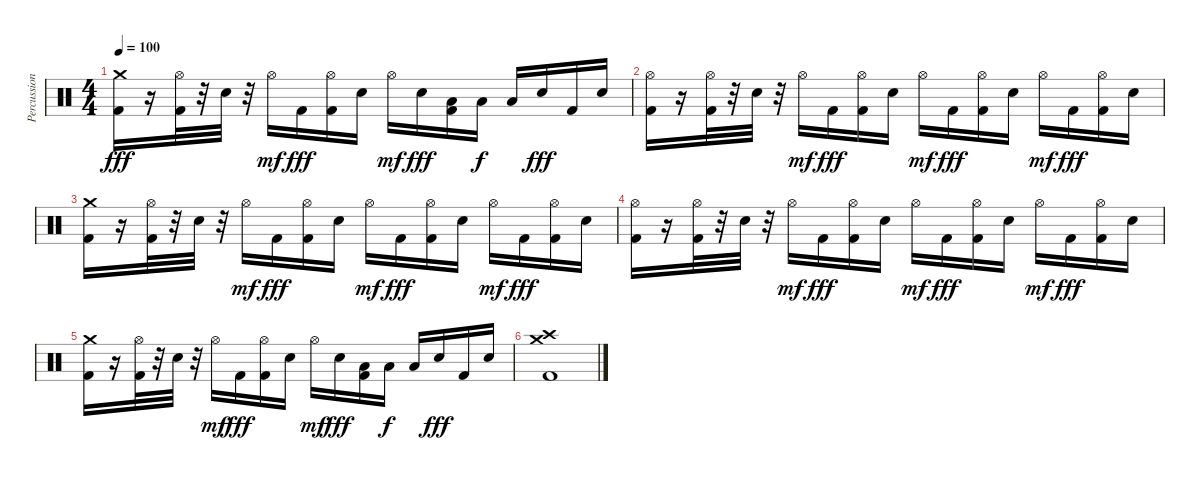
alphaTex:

\track ("Percussion" "Percussion") {instrument percussion}
\staff {score}
\articulation defaults
\ts (4 4)
\tempo 100
\clef neutral
\ks c
("Crash medium (hit)" "Kick (hit) 2").16{dy fff} r.16 ("Hi-Hat (open)" "Kick (hit) 2").32 r.32 "Electric Snare (hit)".32 r.32 "Hi-Hat (open)".16{dy mf} "Kick (hit) 2".16{dy fff} ("Hi-Hat (open)" "Kick (hit) 2").16 "Electric Snare (hit)".16 "Hi-Hat (open)".16{dy mf} "Electric Snare (hit)".16{dy fff} ("Low Floor Tom (hit)" "Kick (hit) 2").16 "Low Floor Tom (hit)".16{dy f} "Low Floor Tom (hit)".16 "Electric Snare (hit)".16{dy fff} "Kick (hit) 2".16 "Electric Snare (hit)".16 |
("Hi-Hat (open)" "Kick (hit) 2").16 r.16 ("Hi-Hat (open)" "Kick (hit) 2").32 r.32 "Electric Snare (hit)".32 r.32 "Hi-Hat (open)".16{dy mf} "Kick (hit) 2".16{dy fff} ("Hi-Hat (open)" "Kick (hit) 2").16 "Electric Snare (hit)".16 "Hi-Hat (open)".16{dy mf} "Kick (hit) 2".16{dy fff} ("Hi-Hat (open)" "Kick (hit) 2").16 "Electric Snare (hit)".16 "Hi-Hat (open)".16{dy mf} "Kick (hit) 2".16{dy fff} ("Hi-Hat (open)" "Kick (hit) 2").16 "Electric Snare (hit)".16 |
("Crash medium (hit)" "Kick (hit) 2").16 r.16 ("Hi-Hat (open)" "Kick (hit) 2").32 r.32 "Electric Snare (hit)".32 r.32 "Hi-Hat (open)".16{dy mf} "Kick (hit) 2".16{dy fff} ("Hi-Hat (open)" "Kick (hit) 2").16 "Electric Snare (hit)".16 "Hi-Hat (open)".16{dy mf} "Kick (hit) 2".16{dy fff} ("Hi-Hat (open)" "Kick (hit) 2").16 "Electric Snare (hit)".16 "Hi-Hat (open)".16{dy mf} "Kick (hit) 2".16{dy fff} ("Hi-Hat (open)" "Kick (hit) 2").16 "Electric Snare (hit)".16 |
("Hi-Hat (open)" "Kick (hit) 2").16 r.16 ("Hi-Hat (open)" "Kick (hit) 2").32 r.32 "Electric Snare (hit)".32 r.32 "Hi-Hat (open)".16{dy mf} "Kick (hit) 2".16{dy fff} ("Hi-Hat (open)" "Kick (hit) 2").16 "Electric Snare (hit)".16 "Hi-Hat (open)".16{dy mf} "Kick (hit) 2".16{dy fff} ("Hi-Hat (open)" "Kick (hit) 2").16 "Electric Snare (hit)".16 "Hi-Hat (open)".16{dy mf} "Kick (hit) 2".16{dy fff} ("Hi-Hat (open)" "Kick (hit) 2").16 "Electric Snare (hit)".16 |
("Crash medium (hit)" "Kick (hit) 2").16 r.16 ("Hi-Hat (open)" "Kick (hit) 2").32 r.32 "Electric Snare (hit)".32 r.32 "Hi-Hat (open)".16{dy mf} "Kick (hit) 2".16{dy fff} ("Hi-Hat (open)" "Kick (hit) 2").16 "Electric Snare (hit)".16 "Hi-Hat (open)".16{dy mf} "Electric Snare (hit)".16{dy fff} ("Low Floor Tom (hit)" "Kick (hit) 2").16 "Low Floor Tom (hit)".16{dy f} "Low Floor Tom (hit)".16 "Electric Snare (hit)".16{dy fff} "Kick (hit) 2".16 "Electric Snare (hit)".16 |
("Crash high (hit)" "Crash medium (hit)" "Kick (hit) 2").1
